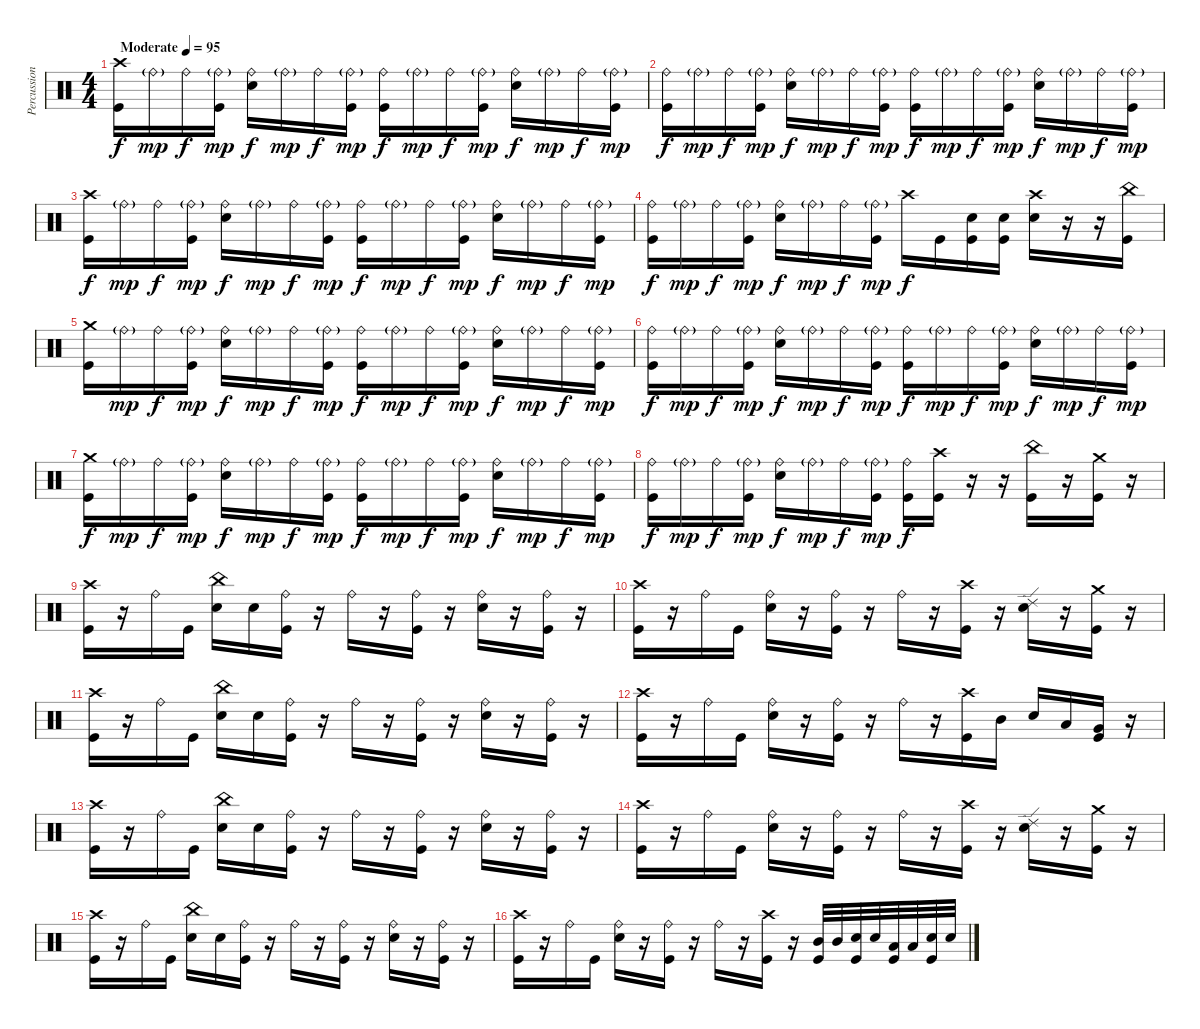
\track ("Percussion" "Percussion") {instrument percussion}
\staff {score}
\articulation defaults
\ts (4 4)
\tempo (95 "Moderate")
\clef neutral
\ks c
("Crash high (hit)" "Kick (hit)").16{dy f} "Ride (bell)"{g}.16{dy mp} "Ride (bell)".16{dy f} ("Ride (bell)"{g} "Kick (hit)").16{dy mp} ("Ride (bell)" "Snare (hit) 2").16{dy f} "Ride (bell)"{g}.16{dy mp} "Ride (bell)".16{dy f} ("Ride (bell)"{g} "Kick (hit)").16{dy mp} ("Ride (bell)" "Kick (hit)").16{dy f} "Ride (bell)"{g}.16{dy mp} "Ride (bell)".16{dy f} ("Ride (bell)"{g} "Kick (hit)").16{dy mp} ("Ride (bell)" "Snare (hit) 2").16{dy f} "Ride (bell)"{g}.16{dy mp} "Ride (bell)".16{dy f} ("Ride (bell)"{g} "Kick (hit)").16{dy mp} |
("Ride (bell)" "Kick (hit)").16{dy f} "Ride (bell)"{g}.16{dy mp} "Ride (bell)".16{dy f} ("Ride (bell)"{g} "Kick (hit)").16{dy mp} ("Ride (bell)" "Snare (hit) 2").16{dy f} "Ride (bell)"{g}.16{dy mp} "Ride (bell)".16{dy f} ("Ride (bell)"{g} "Kick (hit)").16{dy mp} ("Ride (bell)" "Kick (hit)").16{dy f} "Ride (bell)"{g}.16{dy mp} "Ride (bell)".16{dy f} ("Ride (bell)"{g} "Kick (hit)").16{dy mp} ("Ride (bell)" "Snare (hit) 2").16{dy f} "Ride (bell)"{g}.16{dy mp} "Ride (bell)".16{dy f} ("Ride (bell)"{g} "Kick (hit)").16{dy mp} |
("Crash high (hit)" "Kick (hit)").16{dy f} "Ride (bell)"{g}.16{dy mp} "Ride (bell)".16{dy f} ("Ride (bell)"{g} "Kick (hit)").16{dy mp} ("Ride (bell)" "Snare (hit) 2").16{dy f} "Ride (bell)"{g}.16{dy mp} "Ride (bell)".16{dy f} ("Ride (bell)"{g} "Kick (hit)").16{dy mp} ("Ride (bell)" "Kick (hit)").16{dy f} "Ride (bell)"{g}.16{dy mp} "Ride (bell)".16{dy f} ("Ride (bell)"{g} "Kick (hit)").16{dy mp} ("Ride (bell)" "Snare (hit) 2").16{dy f} "Ride (bell)"{g}.16{dy mp} "Ride (bell)".16{dy f} ("Ride (bell)"{g} "Kick (hit)").16{dy mp} |
("Ride (bell)" "Kick (hit)").16{dy f} "Ride (bell)"{g}.16{dy mp} "Ride (bell)".16{dy f} ("Ride (bell)"{g} "Kick (hit)").16{dy mp} ("Ride (bell)" "Snare (hit) 2").16{dy f} "Ride (bell)"{g}.16{dy mp} "Ride (bell)".16{dy f} ("Ride (bell)"{g} "Kick (hit)").16{dy mp} "Crash high (hit)".16{dy f} "Kick (hit)".16 ("Snare (hit) 2" "Kick (hit)").16 ("Snare (hit) 2" "Kick (hit)").16 ("Crash high (hit)" "Snare (hit) 2").16 r.16 r.16 ("China (hit)" "Kick (hit)").16 |
("Crash medium (hit)" "Kick (hit)").16 "Ride (bell)"{g}.16{dy mp} "Ride (bell)".16{dy f} ("Ride (bell)"{g} "Kick (hit)").16{dy mp} ("Ride (bell)" "Snare (hit) 2").16{dy f} "Ride (bell)"{g}.16{dy mp} "Ride (bell)".16{dy f} ("Ride (bell)"{g} "Kick (hit)").16{dy mp} ("Ride (bell)" "Kick (hit)").16{dy f} "Ride (bell)"{g}.16{dy mp} "Ride (bell)".16{dy f} ("Ride (bell)"{g} "Kick (hit)").16{dy mp} ("Ride (bell)" "Snare (hit) 2").16{dy f} "Ride (bell)"{g}.16{dy mp} "Ride (bell)".16{dy f} ("Ride (bell)"{g} "Kick (hit)").16{dy mp} |
("Ride (bell)" "Kick (hit)").16{dy f} "Ride (bell)"{g}.16{dy mp} "Ride (bell)".16{dy f} ("Ride (bell)"{g} "Kick (hit)").16{dy mp} ("Ride (bell)" "Snare (hit) 2").16{dy f} "Ride (bell)"{g}.16{dy mp} "Ride (bell)".16{dy f} ("Ride (bell)"{g} "Kick (hit)").16{dy mp} ("Ride (bell)" "Kick (hit)").16{dy f} "Ride (bell)"{g}.16{dy mp} "Ride (bell)".16{dy f} ("Ride (bell)"{g} "Kick (hit)").16{dy mp} ("Ride (bell)" "Snare (hit) 2").16{dy f} "Ride (bell)"{g}.16{dy mp} "Ride (bell)".16{dy f} ("Ride (bell)"{g} "Kick (hit)").16{dy mp} |
("Crash medium (hit)" "Kick (hit)").16{dy f} "Ride (bell)"{g}.16{dy mp} "Ride (bell)".16{dy f} ("Ride (bell)"{g} "Kick (hit)").16{dy mp} ("Ride (bell)" "Snare (hit) 2").16{dy f} "Ride (bell)"{g}.16{dy mp} "Ride (bell)".16{dy f} ("Ride (bell)"{g} "Kick (hit)").16{dy mp} ("Ride (bell)" "Kick (hit)").16{dy f} "Ride (bell)"{g}.16{dy mp} "Ride (bell)".16{dy f} ("Ride (bell)"{g} "Kick (hit)").16{dy mp} ("Ride (bell)" "Snare (hit) 2").16{dy f} "Ride (bell)"{g}.16{dy mp} "Ride (bell)".16{dy f} ("Ride (bell)"{g} "Kick (hit)").16{dy mp} |
("Ride (bell)" "Kick (hit)").16{dy f} "Ride (bell)"{g}.16{dy mp} "Ride (bell)".16{dy f} ("Ride (bell)"{g} "Kick (hit)").16{dy mp} ("Ride (bell)" "Snare (hit) 2").16{dy f} "Ride (bell)"{g}.16{dy mp} "Ride (bell)".16{dy f} ("Ride (bell)"{g} "Kick (hit)").16{dy mp} ("Ride (bell)" "Kick (hit)").16{dy f} ("Crash high (hit)" "Kick (hit)").16 r.16 r.16 ("China (hit)" "Kick (hit)").16 r.16 ("Crash medium (hit)" "Kick (hit)").16 r.16 |
("Crash high (hit)" "Kick (hit)").16 r.16 "Ride (bell)".16 "Kick (hit)".16 ("China (hit)" "Snare (hit) 2").16 "Snare (hit) 2".16 ("Ride (bell)" "Kick (hit)").16 r.16 "Ride (bell)".16 r.16 ("Ride (bell)" "Kick (hit)").16 r.16 ("Ride (bell)" "Snare (hit) 2").16 r.16 ("Ride (bell)" "Kick (hit)").16 r.16 |
("Crash high (hit)" "Kick (hit)").16 r.16 "Ride (bell)".16 "Kick (hit)".16 ("Ride (bell)" "Snare (hit) 2").16 r.16 ("Ride (bell)" "Kick (hit)").16 r.16 "Ride (bell)".16 r.16 ("Crash high (hit)" "Kick (hit)").16 r.16 ("Ride (edge) 2" "Snare (hit) 2").16 r.16 ("Crash medium (hit)" "Kick (hit)").16 r.16 |
("Crash high (hit)" "Kick (hit)").16 r.16 "Ride (bell)".16 "Kick (hit)".16 ("China (hit)" "Snare (hit) 2").16 "Snare (hit) 2".16 ("Ride (bell)" "Kick (hit)").16 r.16 "Ride (bell)".16 r.16 ("Ride (bell)" "Kick (hit)").16 r.16 ("Ride (bell)" "Snare (hit) 2").16 r.16 ("Ride (bell)" "Kick (hit)").16 r.16 |
("Crash high (hit)" "Kick (hit)").16 r.16 "Ride (bell)".16 "Kick (hit)".16 ("Ride (bell)" "Snare (hit) 2").16 r.16 ("Ride (bell)" "Kick (hit)").16 r.16 "Ride (bell)".16 r.16 ("Crash high (hit)" "Kick (hit)").16 "Mid Tom (hit)".16 "Snare (hit) 2".16 "Low Tom (hit)".16 ("Very Low Tom (hit)" "Kick (hit)").16 r.16 |
("Crash high (hit)" "Kick (hit)").16 r.16 "Ride (bell)".16 "Kick (hit)".16 ("China (hit)" "Snare (hit) 2").16 "Snare (hit) 2".16 ("Ride (bell)" "Kick (hit)").16 r.16 "Ride (bell)".16 r.16 ("Ride (bell)" "Kick (hit)").16 r.16 ("Ride (bell)" "Snare (hit) 2").16 r.16 ("Ride (bell)" "Kick (hit)").16 r.16 |
("Crash high (hit)" "Kick (hit)").16 r.16 "Ride (bell)".16 "Kick (hit)".16 ("Ride (bell)" "Snare (hit) 2").16 r.16 ("Ride (bell)" "Kick (hit)").16 r.16 "Ride (bell)".16 r.16 ("Crash high (hit)" "Kick (hit)").16 r.16 ("Ride (edge) 2" "Snare (hit) 2").16 r.16 ("Crash medium (hit)" "Kick (hit)").16 r.16 |
("Crash high (hit)" "Kick (hit)").16 r.16 "Ride (bell)".16 "Kick (hit)".16 ("China (hit)" "Snare (hit) 2").16 "Snare (hit) 2".16 ("Ride (bell)" "Kick (hit)").16 r.16 "Ride (bell)".16 r.16 ("Ride (bell)" "Kick (hit)").16 r.16 ("Ride (bell)" "Snare (hit) 2").16 r.16 ("Ride (bell)" "Kick (hit)").16 r.16 |
("Crash high (hit)" "Kick (hit)").16 r.16 "Ride (bell)".16 "Kick (hit)".16 ("Ride (bell)" "Snare (hit) 2").16 r.16 ("Ride (bell)" "Kick (hit)").16 r.16 "Ride (bell)".16 r.16 ("Crash high (hit)" "Kick (hit)").16 r.16 ("Mid Tom (hit)" "Kick (hit)").32 "Mid Tom (hit)".32 ("Snare (hit) 2" "Kick (hit)").32 "Snare (hit) 2".32 ("Low Tom (hit)" "Kick (hit)").32 "Low Tom (hit)".32 ("Snare (hit) 2" "Kick (hit)").32 "Snare (hit) 2".32
